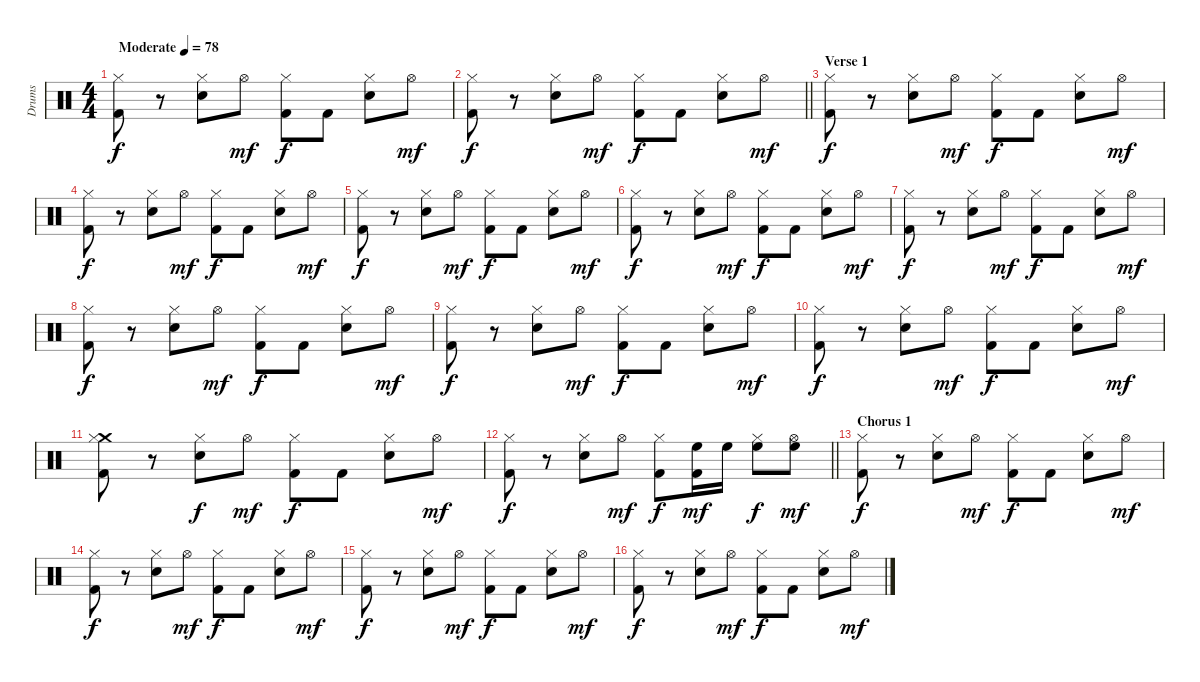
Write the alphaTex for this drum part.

\track ("Drums" "Drums") {instrument percussion}
\staff {score}
\articulation defaults
\ts (4 4)
\tempo (78 "Moderate")
\clef neutral
\ks c
("Hi-Hat (closed)" "Kick (hit) 2").8{dy f} r.8 ("Electric Snare (hit)" "Hi-Hat (closed)").8 "Hi-Hat (open)".8{dy mf} ("Hi-Hat (closed)" "Kick (hit) 2").8{dy f} "Kick (hit) 2".8 ("Electric Snare (hit)" "Hi-Hat (closed)").8 "Hi-Hat (open)".8{dy mf} |
\barLineRight lightlight
("Hi-Hat (closed)" "Kick (hit) 2").8{dy f} r.8 ("Electric Snare (hit)" "Hi-Hat (closed)").8 "Hi-Hat (open)".8{dy mf} ("Hi-Hat (closed)" "Kick (hit) 2").8{dy f} "Kick (hit) 2".8 ("Electric Snare (hit)" "Hi-Hat (closed)").8 "Hi-Hat (open)".8{dy mf} |
\section ("" "Verse 1")
("Hi-Hat (closed)" "Kick (hit) 2").8{dy f} r.8 ("Electric Snare (hit)" "Hi-Hat (closed)").8 "Hi-Hat (open)".8{dy mf} ("Hi-Hat (closed)" "Kick (hit) 2").8{dy f} "Kick (hit) 2".8 ("Electric Snare (hit)" "Hi-Hat (closed)").8 "Hi-Hat (open)".8{dy mf} |
("Hi-Hat (closed)" "Kick (hit) 2").8{dy f} r.8 ("Electric Snare (hit)" "Hi-Hat (closed)").8 "Hi-Hat (open)".8{dy mf} ("Hi-Hat (closed)" "Kick (hit) 2").8{dy f} "Kick (hit) 2".8 ("Electric Snare (hit)" "Hi-Hat (closed)").8 "Hi-Hat (open)".8{dy mf} |
("Hi-Hat (closed)" "Kick (hit) 2").8{dy f} r.8 ("Electric Snare (hit)" "Hi-Hat (closed)").8 "Hi-Hat (open)".8{dy mf} ("Hi-Hat (closed)" "Kick (hit) 2").8{dy f} "Kick (hit) 2".8 ("Electric Snare (hit)" "Hi-Hat (closed)").8 "Hi-Hat (open)".8{dy mf} |
("Hi-Hat (closed)" "Kick (hit) 2").8{dy f} r.8 ("Electric Snare (hit)" "Hi-Hat (closed)").8 "Hi-Hat (open)".8{dy mf} ("Hi-Hat (closed)" "Kick (hit) 2").8{dy f} "Kick (hit) 2".8 ("Electric Snare (hit)" "Hi-Hat (closed)").8 "Hi-Hat (open)".8{dy mf} |
("Hi-Hat (closed)" "Kick (hit) 2").8{dy f} r.8 ("Electric Snare (hit)" "Hi-Hat (closed)").8 "Hi-Hat (open)".8{dy mf} ("Hi-Hat (closed)" "Kick (hit) 2").8{dy f} "Kick (hit) 2".8 ("Electric Snare (hit)" "Hi-Hat (closed)").8 "Hi-Hat (open)".8{dy mf} |
("Hi-Hat (closed)" "Kick (hit) 2").8{dy f} r.8 ("Electric Snare (hit)" "Hi-Hat (closed)").8 "Hi-Hat (open)".8{dy mf} ("Hi-Hat (closed)" "Kick (hit) 2").8{dy f} "Kick (hit) 2".8 ("Electric Snare (hit)" "Hi-Hat (closed)").8 "Hi-Hat (open)".8{dy mf} |
("Hi-Hat (closed)" "Kick (hit) 2").8{dy f} r.8 ("Electric Snare (hit)" "Hi-Hat (closed)").8 "Hi-Hat (open)".8{dy mf} ("Hi-Hat (closed)" "Kick (hit) 2").8{dy f} "Kick (hit) 2".8 ("Electric Snare (hit)" "Hi-Hat (closed)").8 "Hi-Hat (open)".8{dy mf} |
("Hi-Hat (closed)" "Kick (hit) 2").8{dy f} r.8 ("Electric Snare (hit)" "Hi-Hat (closed)").8 "Hi-Hat (open)".8{dy mf} ("Hi-Hat (closed)" "Kick (hit) 2").8{dy f} "Kick (hit) 2".8 ("Electric Snare (hit)" "Hi-Hat (closed)").8 "Hi-Hat (open)".8{dy mf} |
("Crash medium (hit)" "Hi-Hat (closed)" "Kick (hit) 2").8 r.8 ("Electric Snare (hit)" "Hi-Hat (closed)").8{dy f} "Hi-Hat (open)".8{dy mf} ("Hi-Hat (closed)" "Kick (hit) 2").8{dy f} "Kick (hit) 2".8 ("Electric Snare (hit)" "Hi-Hat (closed)").8 "Hi-Hat (open)".8{dy mf} |
\barLineRight lightlight
("Hi-Hat (closed)" "Kick (hit) 2").8{dy f} r.8 ("Electric Snare (hit)" "Hi-Hat (closed)").8 "Hi-Hat (open)".8{dy mf} ("Hi-Hat (closed)" "Kick (hit) 2").8{dy f} ("High Floor Tom (hit)" "Kick (hit) 2").16{dy mf} "High Floor Tom (hit)".16 ("High Floor Tom (hit)" "Hi-Hat (closed)").8{dy f} ("High Floor Tom (hit)" "Hi-Hat (open)").8{dy mf} |
\section ("" "Chorus 1")
("Hi-Hat (closed)" "Kick (hit) 2").8{dy f} r.8 ("Electric Snare (hit)" "Hi-Hat (closed)").8 "Hi-Hat (open)".8{dy mf} ("Hi-Hat (closed)" "Kick (hit) 2").8{dy f} "Kick (hit) 2".8 ("Electric Snare (hit)" "Hi-Hat (closed)").8 "Hi-Hat (open)".8{dy mf} |
("Hi-Hat (closed)" "Kick (hit) 2").8{dy f} r.8 ("Electric Snare (hit)" "Hi-Hat (closed)").8 "Hi-Hat (open)".8{dy mf} ("Hi-Hat (closed)" "Kick (hit) 2").8{dy f} "Kick (hit) 2".8 ("Electric Snare (hit)" "Hi-Hat (closed)").8 "Hi-Hat (open)".8{dy mf} |
("Hi-Hat (closed)" "Kick (hit) 2").8{dy f} r.8 ("Electric Snare (hit)" "Hi-Hat (closed)").8 "Hi-Hat (open)".8{dy mf} ("Hi-Hat (closed)" "Kick (hit) 2").8{dy f} "Kick (hit) 2".8 ("Electric Snare (hit)" "Hi-Hat (closed)").8 "Hi-Hat (open)".8{dy mf} |
("Hi-Hat (closed)" "Kick (hit) 2").8{dy f} r.8 ("Electric Snare (hit)" "Hi-Hat (closed)").8 "Hi-Hat (open)".8{dy mf} ("Hi-Hat (closed)" "Kick (hit) 2").8{dy f} "Kick (hit) 2".8 ("Electric Snare (hit)" "Hi-Hat (closed)").8 "Hi-Hat (open)".8{dy mf}
